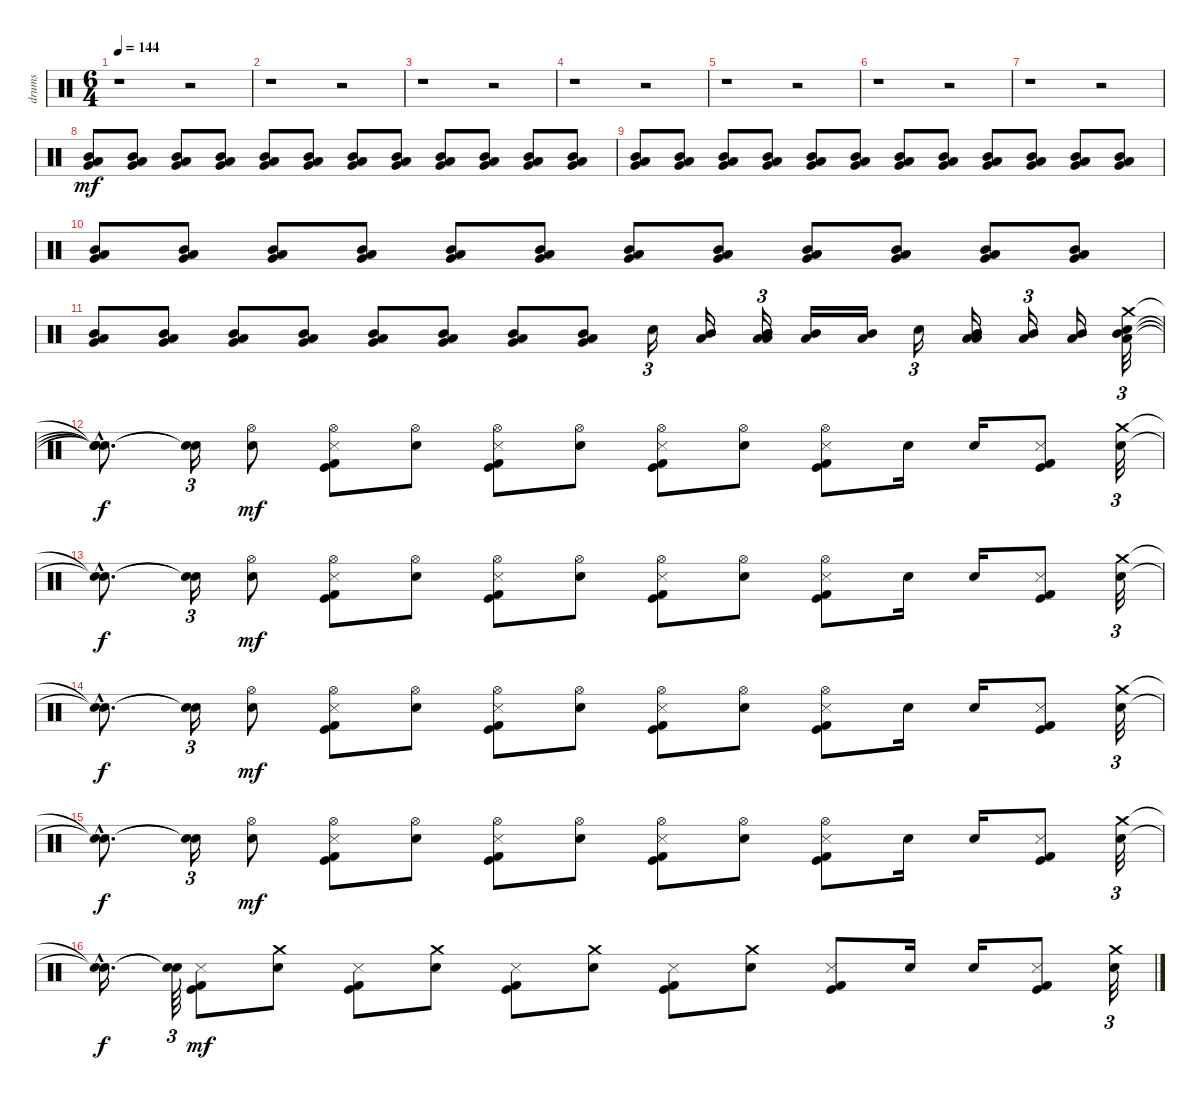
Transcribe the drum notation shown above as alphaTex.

\track ("drums" "drums") {instrument percussion}
\staff {score}
\articulation defaults
\ts (6 4)
\tempo 144
\clef neutral
\ks c
r.1{dy mf} r.2 |
r.1 r.2 |
r.1 r.2 |
r.1 r.2 |
r.1 r.2 |
r.1 r.2 |
r.1 r.2 |
("Very Low Tom (hit)" "Low Tom (hit)" "Mid Tom (hit)").8 ("Very Low Tom (hit)" "Low Tom (hit)" "Mid Tom (hit)").8 ("Very Low Tom (hit)" "Low Tom (hit)" "Mid Tom (hit)").8 ("Very Low Tom (hit)" "Low Tom (hit)" "Mid Tom (hit)").8 ("Very Low Tom (hit)" "Low Tom (hit)" "Mid Tom (hit)").8 ("Very Low Tom (hit)" "Low Tom (hit)" "Mid Tom (hit)").8 ("Very Low Tom (hit)" "Low Tom (hit)" "Mid Tom (hit)").8 ("Very Low Tom (hit)" "Low Tom (hit)" "Mid Tom (hit)").8 ("Very Low Tom (hit)" "Low Tom (hit)" "Mid Tom (hit)").8 ("Very Low Tom (hit)" "Low Tom (hit)" "Mid Tom (hit)").8 ("Very Low Tom (hit)" "Low Tom (hit)" "Mid Tom (hit)").8 ("Very Low Tom (hit)" "Low Tom (hit)" "Mid Tom (hit)").8 |
("Very Low Tom (hit)" "Low Tom (hit)" "Mid Tom (hit)").8 ("Very Low Tom (hit)" "Low Tom (hit)" "Mid Tom (hit)").8 ("Very Low Tom (hit)" "Low Tom (hit)" "Mid Tom (hit)").8 ("Very Low Tom (hit)" "Low Tom (hit)" "Mid Tom (hit)").8 ("Very Low Tom (hit)" "Low Tom (hit)" "Mid Tom (hit)").8 ("Very Low Tom (hit)" "Low Tom (hit)" "Mid Tom (hit)").8 ("Very Low Tom (hit)" "Low Tom (hit)" "Mid Tom (hit)").8 ("Very Low Tom (hit)" "Low Tom (hit)" "Mid Tom (hit)").8 ("Very Low Tom (hit)" "Low Tom (hit)" "Mid Tom (hit)").8 ("Very Low Tom (hit)" "Low Tom (hit)" "Mid Tom (hit)").8 ("Very Low Tom (hit)" "Low Tom (hit)" "Mid Tom (hit)").8 ("Very Low Tom (hit)" "Low Tom (hit)" "Mid Tom (hit)").8 |
("Very Low Tom (hit)" "Low Tom (hit)" "Mid Tom (hit)").8 ("Very Low Tom (hit)" "Low Tom (hit)" "Mid Tom (hit)").8 ("Very Low Tom (hit)" "Low Tom (hit)" "Mid Tom (hit)").8 ("Very Low Tom (hit)" "Low Tom (hit)" "Mid Tom (hit)").8 ("Very Low Tom (hit)" "Low Tom (hit)" "Mid Tom (hit)").8 ("Very Low Tom (hit)" "Low Tom (hit)" "Mid Tom (hit)").8 ("Very Low Tom (hit)" "Low Tom (hit)" "Mid Tom (hit)").8 ("Very Low Tom (hit)" "Low Tom (hit)" "Mid Tom (hit)").8 ("Very Low Tom (hit)" "Low Tom (hit)" "Mid Tom (hit)").8 ("Very Low Tom (hit)" "Low Tom (hit)" "Mid Tom (hit)").8 ("Very Low Tom (hit)" "Low Tom (hit)" "Mid Tom (hit)").8 ("Very Low Tom (hit)" "Low Tom (hit)" "Mid Tom (hit)").8 |
("Very Low Tom (hit)" "Low Tom (hit)" "Mid Tom (hit)").8 ("Very Low Tom (hit)" "Low Tom (hit)" "Mid Tom (hit)").8 ("Very Low Tom (hit)" "Low Tom (hit)" "Mid Tom (hit)").8 ("Very Low Tom (hit)" "Low Tom (hit)" "Mid Tom (hit)").8 ("Very Low Tom (hit)" "Low Tom (hit)" "Mid Tom (hit)").8 ("Very Low Tom (hit)" "Low Tom (hit)" "Mid Tom (hit)").8 ("Very Low Tom (hit)" "Low Tom (hit)" "Mid Tom (hit)").8 ("Very Low Tom (hit)" "Low Tom (hit)" "Mid Tom (hit)").8 "Snare (hit) 2".16{tu (3 2)} ("Low Tom (hit)" "Mid Tom (hit)").16 ("Low Tom (hit)" "Mid Tom (hit)" "Low Tom (hit)" "Mid Tom (hit)").16{tu (3 2)} ("Low Tom (hit)" "Mid Tom (hit)").16 ("Low Tom (hit)" "Mid Tom (hit)").16 "Snare (hit) 2".16{tu (3 2)} ("Low Tom (hit)" "Mid Tom (hit)" "Low Tom (hit)" "Mid Tom (hit)").16 ("Low Tom (hit)" "Mid Tom (hit)").16{tu (3 2)} ("Low Tom (hit)" "Mid Tom (hit)").16 ("Low Tom (hit)" "Mid Tom (hit)" "Snare (hit) 2" "Crash medium (hit)").32{tu (3 2)} |
("Snare (hit)"{t} "Snare (hit)"{t} "Snare (hit)"{hac t} "Snare (hit)"{hac t}).8{d dy f} ("Snare (hit)"{t} "Snare (hit)"{t}).16{tu (3 2)} ("Snare (hit) 2" "Hi-Hat (open)").8{dy mf} ("Hi-Hat (open)" "Metronome (hit)" "Kick (hit)" "Kick (hit) 2").8 ("Snare (hit) 2" "Hi-Hat (open)").8 ("Hi-Hat (open)" "Metronome (hit)" "Kick (hit)" "Kick (hit) 2").8 ("Snare (hit) 2" "Hi-Hat (open)").8 ("Hi-Hat (open)" "Metronome (hit)" "Kick (hit)" "Kick (hit) 2").8 ("Snare (hit) 2" "Hi-Hat (open)").8 ("Hi-Hat (open)" "Metronome (hit)" "Kick (hit)" "Kick (hit) 2").8 "Snare (hit) 2".16 "Snare (hit) 2".16 ("Metronome (hit)" "Kick (hit)" "Kick (hit) 2").8 ("Snare (hit) 2" "Crash medium (hit)").32{tu (3 2)} |
("Snare (hit)"{hac t} "Snare (hit)"{hac t}).8{d dy f} ("Snare (hit)"{t} "Snare (hit)"{t}).16{tu (3 2)} ("Snare (hit) 2" "Hi-Hat (open)").8{dy mf} ("Hi-Hat (open)" "Metronome (hit)" "Kick (hit)" "Kick (hit) 2").8 ("Snare (hit) 2" "Hi-Hat (open)").8 ("Hi-Hat (open)" "Metronome (hit)" "Kick (hit)" "Kick (hit) 2").8 ("Snare (hit) 2" "Hi-Hat (open)").8 ("Hi-Hat (open)" "Metronome (hit)" "Kick (hit)" "Kick (hit) 2").8 ("Snare (hit) 2" "Hi-Hat (open)").8 ("Hi-Hat (open)" "Metronome (hit)" "Kick (hit)" "Kick (hit) 2").8 "Snare (hit) 2".16 "Snare (hit) 2".16 ("Metronome (hit)" "Kick (hit)" "Kick (hit) 2").8 ("Snare (hit) 2" "Crash medium (hit)").32{tu (3 2)} |
("Snare (hit)"{hac t} "Snare (hit)"{hac t}).8{d dy f} ("Snare (hit)"{t} "Snare (hit)"{t}).16{tu (3 2)} ("Snare (hit) 2" "Hi-Hat (open)").8{dy mf} ("Hi-Hat (open)" "Metronome (hit)" "Kick (hit)" "Kick (hit) 2").8 ("Snare (hit) 2" "Hi-Hat (open)").8 ("Hi-Hat (open)" "Metronome (hit)" "Kick (hit)" "Kick (hit) 2").8 ("Snare (hit) 2" "Hi-Hat (open)").8 ("Hi-Hat (open)" "Metronome (hit)" "Kick (hit)" "Kick (hit) 2").8 ("Snare (hit) 2" "Hi-Hat (open)").8 ("Hi-Hat (open)" "Metronome (hit)" "Kick (hit)" "Kick (hit) 2").8 "Snare (hit) 2".16 "Snare (hit) 2".16 ("Metronome (hit)" "Kick (hit)" "Kick (hit) 2").8 ("Snare (hit) 2" "Crash medium (hit)").32{tu (3 2)} |
("Snare (hit)"{hac t} "Snare (hit)"{hac t}).8{d dy f} ("Snare (hit)"{t} "Snare (hit)"{t}).16{tu (3 2)} ("Snare (hit) 2" "Hi-Hat (open)").8{dy mf} ("Hi-Hat (open)" "Metronome (hit)" "Kick (hit)" "Kick (hit) 2").8 ("Snare (hit) 2" "Hi-Hat (open)").8 ("Hi-Hat (open)" "Metronome (hit)" "Kick (hit)" "Kick (hit) 2").8 ("Snare (hit) 2" "Hi-Hat (open)").8 ("Hi-Hat (open)" "Metronome (hit)" "Kick (hit)" "Kick (hit) 2").8 ("Snare (hit) 2" "Hi-Hat (open)").8 ("Hi-Hat (open)" "Metronome (hit)" "Kick (hit)" "Kick (hit) 2").8 "Snare (hit) 2".16 "Snare (hit) 2".16 ("Metronome (hit)" "Kick (hit)" "Kick (hit) 2").8 ("Snare (hit) 2" "Crash medium (hit)").32{tu (3 2)} |
("Snare (hit)"{hac t} "Snare (hit)"{hac t}).16{d dy f} ("Snare (hit)"{t} "Snare (hit)"{t}).64{tu (3 2)} ("Metronome (hit)" "Kick (hit)" "Kick (hit) 2").8{dy mf} ("Snare (hit) 2" "Crash medium (hit)").8 ("Metronome (hit)" "Kick (hit)" "Kick (hit) 2").8 ("Snare (hit) 2" "Crash medium (hit)").8 ("Metronome (hit)" "Kick (hit)" "Kick (hit) 2").8 ("Snare (hit) 2" "Crash medium (hit)").8 ("Metronome (hit)" "Kick (hit)" "Kick (hit) 2").8 ("Snare (hit) 2" "Crash medium (hit)").8 ("Metronome (hit)" "Kick (hit)" "Kick (hit) 2").8 "Snare (hit) 2".16 "Snare (hit) 2".16 ("Metronome (hit)" "Kick (hit)" "Kick (hit) 2").8 ("Snare (hit) 2" "Crash medium (hit)").32{tu (3 2)}
